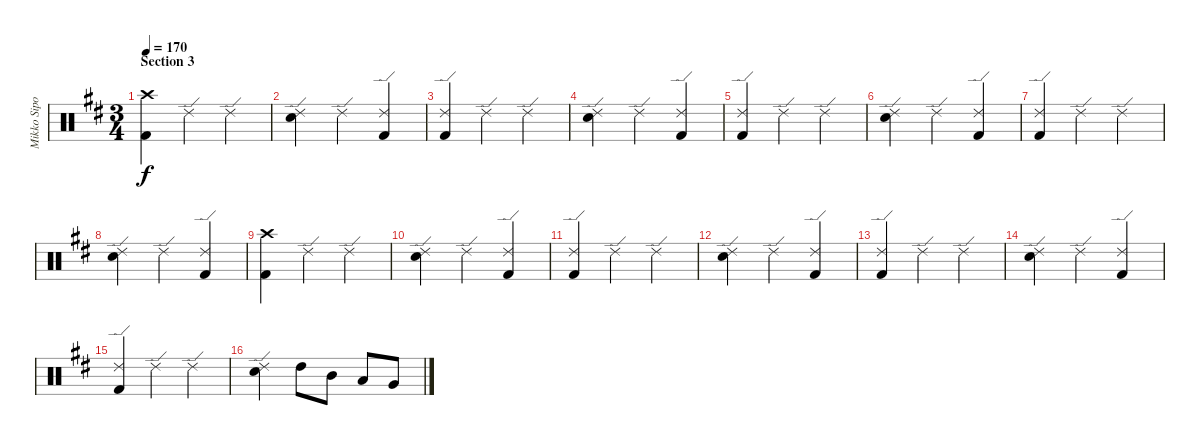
\track ("Mikko Sipola (drums)" "Mikko Sipo") {instrument percussion}
\staff {score}
\articulation defaults
\ts (3 4)
\section ("" "Section 3")
\tempo 170
\clef neutral
\ks bminor
("Crash high (hit)" "Kick (hit) 2").4{dy f} "Ride (edge) 2".4 "Ride (edge) 2".4 |
("Ride (edge) 2" "Electric Snare (hit)").4 "Ride (edge) 2".4 ("Ride (edge) 2" "Kick (hit) 2").4 |
("Ride (edge) 2" "Kick (hit) 2").4 "Ride (edge) 2".4 "Ride (edge) 2".4 |
("Ride (edge) 2" "Electric Snare (hit)").4 "Ride (edge) 2".4 ("Ride (edge) 2" "Kick (hit) 2").4 |
("Ride (edge) 2" "Kick (hit) 2").4 "Ride (edge) 2".4 "Ride (edge) 2".4 |
("Ride (edge) 2" "Electric Snare (hit)").4 "Ride (edge) 2".4 ("Ride (edge) 2" "Kick (hit) 2").4 |
("Ride (edge) 2" "Kick (hit) 2").4 "Ride (edge) 2".4 "Ride (edge) 2".4 |
("Ride (edge) 2" "Electric Snare (hit)").4 "Ride (edge) 2".4 ("Ride (edge) 2" "Kick (hit) 2").4 |
("Crash high (hit)" "Kick (hit) 2").4 "Ride (edge) 2".4 "Ride (edge) 2".4 |
("Ride (edge) 2" "Electric Snare (hit)").4 "Ride (edge) 2".4 ("Ride (edge) 2" "Kick (hit) 2").4 |
("Ride (edge) 2" "Kick (hit) 2").4 "Ride (edge) 2".4 "Ride (edge) 2".4 |
("Ride (edge) 2" "Electric Snare (hit)").4 "Ride (edge) 2".4 ("Ride (edge) 2" "Kick (hit) 2").4 |
("Ride (edge) 2" "Kick (hit) 2").4 "Ride (edge) 2".4 "Ride (edge) 2".4 |
("Ride (edge) 2" "Electric Snare (hit)").4 "Ride (edge) 2".4 ("Ride (edge) 2" "Kick (hit) 2").4 |
("Ride (edge) 2" "Kick (hit) 2").4 "Ride (edge) 2".4 "Ride (edge) 2".4 |
("Ride (edge) 2" "Electric Snare (hit)").4 "High Tom (hit)".8 "Mid Tom (hit)".8 "Low Tom (hit)".8 "Very Low Tom (hit)".8
